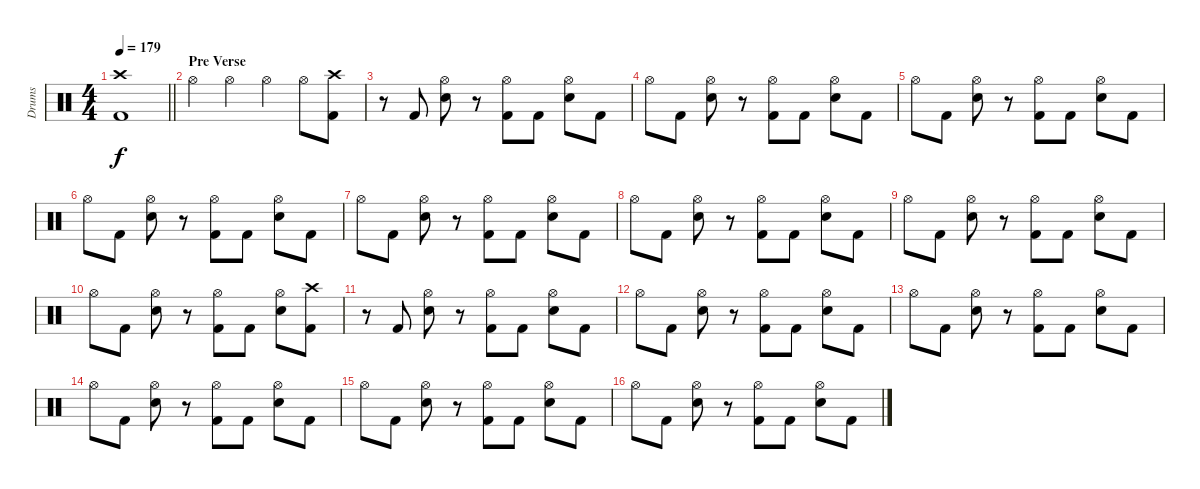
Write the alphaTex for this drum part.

\track ("Drums" "Drums") {instrument percussion}
\staff {score}
\articulation defaults
\ts (4 4)
\tempo 179
\clef neutral
\barLineRight lightlight
\ks c
("Crash high (hit)" "Kick (hit) 2").1{dy f} |
\section ("" "Pre Verse")
"Hi-Hat (open)".4 "Hi-Hat (open)".4 "Hi-Hat (open)".4 "Hi-Hat (open)".8 ("Crash high (hit)" "Kick (hit) 2").8 |
r.8 "Kick (hit) 2".8 ("Hi-Hat (open)" "Snare (hit) 2").8 r.8 ("Hi-Hat (open)" "Kick (hit) 2").8 "Kick (hit) 2".8 ("Hi-Hat (open)" "Snare (hit) 2").8 "Kick (hit) 2".8 |
"Hi-Hat (open)".8 "Kick (hit) 2".8 ("Hi-Hat (open)" "Snare (hit) 2").8 r.8 ("Hi-Hat (open)" "Kick (hit) 2").8 "Kick (hit) 2".8 ("Hi-Hat (open)" "Snare (hit) 2").8 "Kick (hit) 2".8 |
"Hi-Hat (open)".8 "Kick (hit) 2".8 ("Hi-Hat (open)" "Snare (hit) 2").8 r.8 ("Hi-Hat (open)" "Kick (hit) 2").8 "Kick (hit) 2".8 ("Hi-Hat (open)" "Snare (hit) 2").8 "Kick (hit) 2".8 |
"Hi-Hat (open)".8 "Kick (hit) 2".8 ("Hi-Hat (open)" "Snare (hit) 2").8 r.8 ("Hi-Hat (open)" "Kick (hit) 2").8 "Kick (hit) 2".8 ("Hi-Hat (open)" "Snare (hit) 2").8 "Kick (hit) 2".8 |
"Hi-Hat (open)".8 "Kick (hit) 2".8 ("Hi-Hat (open)" "Snare (hit) 2").8 r.8 ("Hi-Hat (open)" "Kick (hit) 2").8 "Kick (hit) 2".8 ("Hi-Hat (open)" "Snare (hit) 2").8 "Kick (hit) 2".8 |
"Hi-Hat (open)".8 "Kick (hit) 2".8 ("Hi-Hat (open)" "Snare (hit) 2").8 r.8 ("Hi-Hat (open)" "Kick (hit) 2").8 "Kick (hit) 2".8 ("Hi-Hat (open)" "Snare (hit) 2").8 "Kick (hit) 2".8 |
"Hi-Hat (open)".8 "Kick (hit) 2".8 ("Hi-Hat (open)" "Snare (hit) 2").8 r.8 ("Hi-Hat (open)" "Kick (hit) 2").8 "Kick (hit) 2".8 ("Hi-Hat (open)" "Snare (hit) 2").8 "Kick (hit) 2".8 |
"Hi-Hat (open)".8 "Kick (hit) 2".8 ("Hi-Hat (open)" "Snare (hit) 2").8 r.8 ("Hi-Hat (open)" "Kick (hit) 2").8 "Kick (hit) 2".8 ("Hi-Hat (open)" "Snare (hit) 2").8 ("Crash high (hit)" "Kick (hit) 2").8 |
r.8 "Kick (hit) 2".8 ("Hi-Hat (open)" "Snare (hit) 2").8 r.8 ("Hi-Hat (open)" "Kick (hit) 2").8 "Kick (hit) 2".8 ("Hi-Hat (open)" "Snare (hit) 2").8 "Kick (hit) 2".8 |
"Hi-Hat (open)".8 "Kick (hit) 2".8 ("Hi-Hat (open)" "Snare (hit) 2").8 r.8 ("Hi-Hat (open)" "Kick (hit) 2").8 "Kick (hit) 2".8 ("Hi-Hat (open)" "Snare (hit) 2").8 "Kick (hit) 2".8 |
"Hi-Hat (open)".8 "Kick (hit) 2".8 ("Hi-Hat (open)" "Snare (hit) 2").8 r.8 ("Hi-Hat (open)" "Kick (hit) 2").8 "Kick (hit) 2".8 ("Hi-Hat (open)" "Snare (hit) 2").8 "Kick (hit) 2".8 |
"Hi-Hat (open)".8 "Kick (hit) 2".8 ("Hi-Hat (open)" "Snare (hit) 2").8 r.8 ("Hi-Hat (open)" "Kick (hit) 2").8 "Kick (hit) 2".8 ("Hi-Hat (open)" "Snare (hit) 2").8 "Kick (hit) 2".8 |
"Hi-Hat (open)".8 "Kick (hit) 2".8 ("Hi-Hat (open)" "Snare (hit) 2").8 r.8 ("Hi-Hat (open)" "Kick (hit) 2").8 "Kick (hit) 2".8 ("Hi-Hat (open)" "Snare (hit) 2").8 "Kick (hit) 2".8 |
"Hi-Hat (open)".8 "Kick (hit) 2".8 ("Hi-Hat (open)" "Snare (hit) 2").8 r.8 ("Hi-Hat (open)" "Kick (hit) 2").8 "Kick (hit) 2".8 ("Hi-Hat (open)" "Snare (hit) 2").8 "Kick (hit) 2".8
